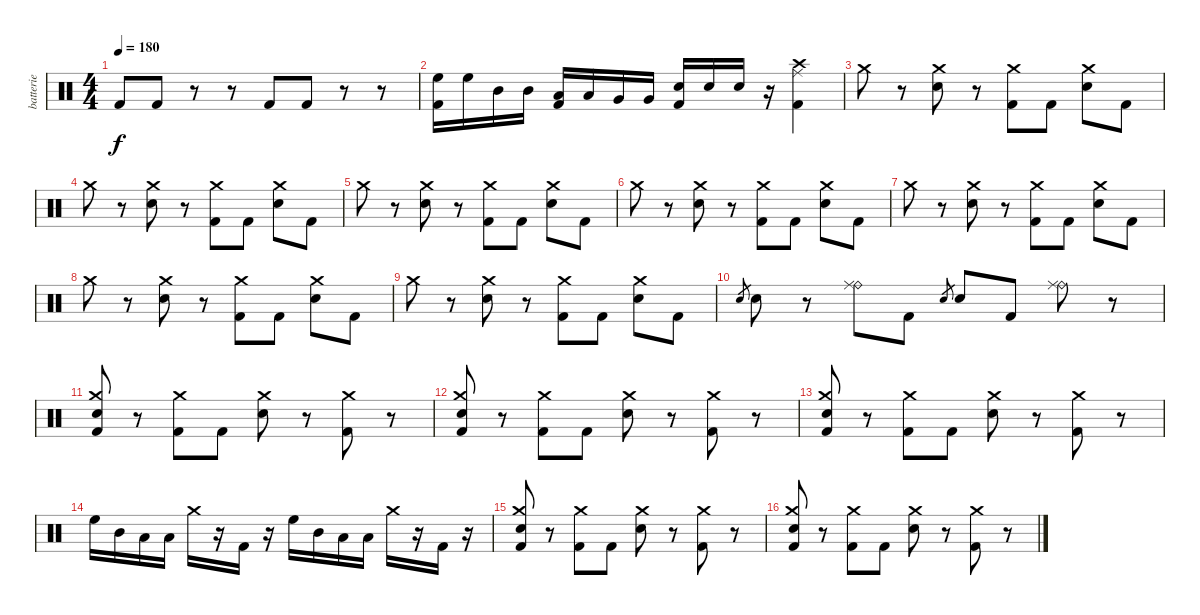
\track ("batterie" "batterie") {instrument percussion}
\staff {score}
\articulation defaults
\ts (4 4)
\tempo 180
\clef neutral
\ks c "Kick (hit) 2".8{dy f} "Kick (hit) 2".8
r.8 r.8 "Kick (hit) 2".8 "Kick (hit) 2".8 r.8 r.8 |
("High Floor Tom (hit)" "Kick (hit) 2").16 "High Floor Tom (hit)".16 "Mid Tom (hit)".16 "Mid Tom (hit)".16 ("Low Tom (hit)" "Kick (hit) 2").16 "Low Tom (hit)".16 "Very Low Tom (hit)".16 "Very Low Tom (hit)".16 ("Snare (hit) 2" "Kick (hit) 2").16 "Snare (hit) 2".16 "Snare (hit) 2".16 r.16 ("Crash high (hit)" "Ride (middle)" "Kick (hit) 2").4 |
"Crash medium (hit)".8 r.8 ("Crash medium (hit)" "Electric Snare (hit)").8 r.8 ("Crash medium (hit)" "Kick (hit) 2").8 "Kick (hit) 2".8 ("Crash medium (hit)" "Electric Snare (hit)").8 "Kick (hit) 2".8 |
"Crash medium (hit)".8 r.8 ("Crash medium (hit)" "Electric Snare (hit)").8 r.8 ("Crash medium (hit)" "Kick (hit) 2").8 "Kick (hit) 2".8 ("Crash medium (hit)" "Electric Snare (hit)").8 "Kick (hit) 2".8 |
"Crash medium (hit)".8 r.8 ("Crash medium (hit)" "Electric Snare (hit)").8 r.8 ("Crash medium (hit)" "Kick (hit) 2").8 "Kick (hit) 2".8 ("Crash medium (hit)" "Electric Snare (hit)").8 "Kick (hit) 2".8 |
"Crash medium (hit)".8 r.8 ("Crash medium (hit)" "Electric Snare (hit)").8 r.8 ("Crash medium (hit)" "Kick (hit) 2").8 "Kick (hit) 2".8 ("Crash medium (hit)" "Electric Snare (hit)").8 "Kick (hit) 2".8 |
"Crash medium (hit)".8 r.8 ("Crash medium (hit)" "Electric Snare (hit)").8 r.8 ("Crash medium (hit)" "Kick (hit) 2").8 "Kick (hit) 2".8 ("Crash medium (hit)" "Electric Snare (hit)").8 "Kick (hit) 2".8 |
"Crash medium (hit)".8 r.8 ("Crash medium (hit)" "Electric Snare (hit)").8 r.8 ("Crash medium (hit)" "Kick (hit) 2").8 "Kick (hit) 2".8 ("Crash medium (hit)" "Electric Snare (hit)").8 "Kick (hit) 2".8 |
"Crash medium (hit)".8 r.8 ("Crash medium (hit)" "Electric Snare (hit)").8 r.8 ("Crash medium (hit)" "Kick (hit) 2").8 "Kick (hit) 2".8 ("Crash medium (hit)" "Electric Snare (hit)").8 "Kick (hit) 2".8 |
"Electric Snare (hit)".8{gr} "Electric Snare (hit)".8 r.8 ("Ride (bell)" "Ride (middle)").8 "Kick (hit) 2".8 "Electric Snare (hit)".8{gr} "Electric Snare (hit)".8 "Kick (hit) 2".8 ("Ride (bell)" "Ride (middle)").8 r.8 |
("Crash medium (hit)" "Electric Snare (hit)" "Kick (hit) 2").8 r.8 ("Crash medium (hit)" "Kick (hit) 2").8 "Kick (hit) 2".8 ("Crash medium (hit)" "Electric Snare (hit)").8 r.8 ("Crash medium (hit)" "Kick (hit) 2").8 r.8 |
("Crash medium (hit)" "Electric Snare (hit)" "Kick (hit) 2").8 r.8 ("Crash medium (hit)" "Kick (hit) 2").8 "Kick (hit) 2".8 ("Crash medium (hit)" "Electric Snare (hit)").8 r.8 ("Crash medium (hit)" "Kick (hit) 2").8 r.8 |
("Crash medium (hit)" "Electric Snare (hit)" "Kick (hit) 2").8 r.8 ("Crash medium (hit)" "Kick (hit) 2").8 "Kick (hit) 2".8 ("Crash medium (hit)" "Electric Snare (hit)").8 r.8 ("Crash medium (hit)" "Kick (hit) 2").8 r.8 |
"High Floor Tom (hit)".16 "Mid Tom (hit)".16 "Low Tom (hit)".16 "Low Tom (hit)".16 "Crash medium (hit)".16 r.16 "Kick (hit) 2".16 r.16 "High Floor Tom (hit)".16 "Mid Tom (hit)".16 "Low Tom (hit)".16 "Low Tom (hit)".16 "Crash medium (hit)".16 r.16 "Kick (hit) 2".16 r.16 |
("Crash medium (hit)" "Electric Snare (hit)" "Kick (hit) 2").8 r.8 ("Crash medium (hit)" "Kick (hit) 2").8 "Kick (hit) 2".8 ("Crash medium (hit)" "Electric Snare (hit)").8 r.8 ("Crash medium (hit)" "Kick (hit) 2").8 r.8 |
("Crash medium (hit)" "Electric Snare (hit)" "Kick (hit) 2").8 r.8 ("Crash medium (hit)" "Kick (hit) 2").8 "Kick (hit) 2".8 ("Crash medium (hit)" "Electric Snare (hit)").8 r.8 ("Crash medium (hit)" "Kick (hit) 2").8 r.8
